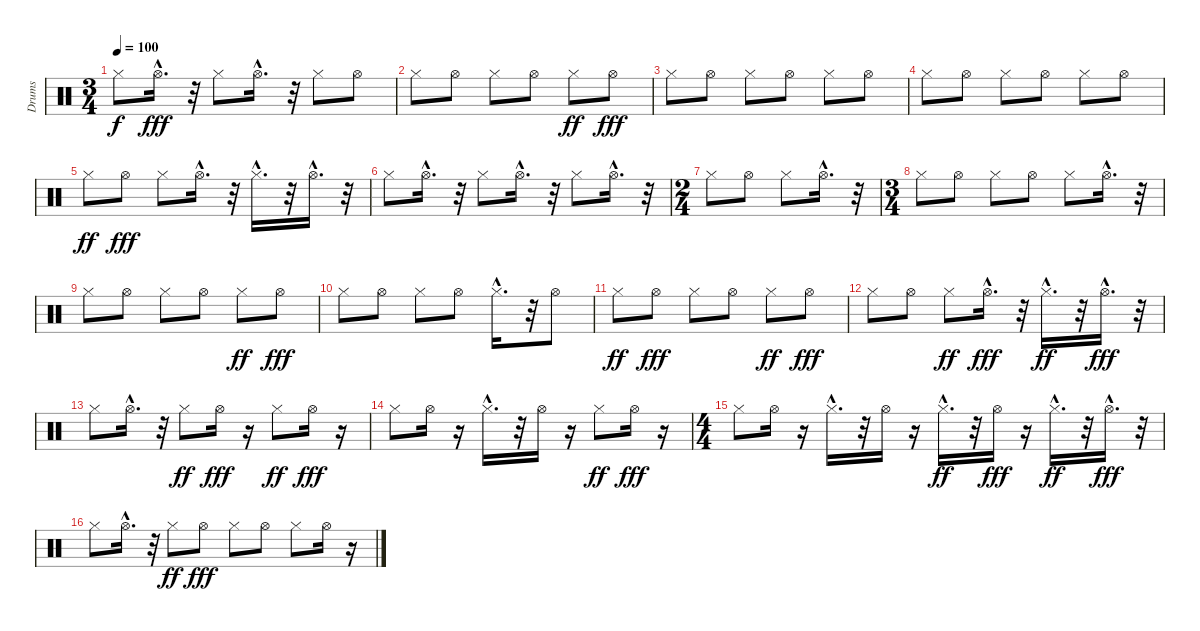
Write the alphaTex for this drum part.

\track ("Drums" "Drums") {instrument percussion}
\staff {score}
\articulation defaults
\ts (3 4)
\tempo 100
\clef neutral
\ks c "Hi-Hat (closed)".8{dy f} "Hi-Hat (open)"{hac}.16{d dy fff}
r.32 "Hi-Hat (closed)".8 "Hi-Hat (open)"{hac}.16{d} r.32 "Hi-Hat (closed)".8 "Hi-Hat (open)".8 |
"Hi-Hat (closed)".8 "Hi-Hat (open)".8 "Hi-Hat (closed)".8 "Hi-Hat (open)".8 "Hi-Hat (closed)".8{dy ff} "Hi-Hat (open)".8{dy fff} |
"Hi-Hat (closed)".8 "Hi-Hat (open)".8 "Hi-Hat (closed)".8 "Hi-Hat (open)".8 "Hi-Hat (closed)".8 "Hi-Hat (open)".8 |
"Hi-Hat (closed)".8 "Hi-Hat (open)".8 "Hi-Hat (closed)".8 "Hi-Hat (open)".8 "Hi-Hat (closed)".8 "Hi-Hat (open)".8 |
"Hi-Hat (closed)".8{dy ff} "Hi-Hat (open)".8{dy fff} "Hi-Hat (closed)".8 "Hi-Hat (open)"{hac}.16{d} r.32 "Hi-Hat (closed)"{hac}.16{d} r.32 "Hi-Hat (open)"{hac}.16{d} r.32 |
"Hi-Hat (closed)".8 "Hi-Hat (open)"{hac}.16{d} r.32 "Hi-Hat (closed)".8 "Hi-Hat (open)"{hac}.16{d} r.32 "Hi-Hat (closed)".8 "Hi-Hat (open)"{hac}.16{d} r.32 |
\ts (2 4)
"Hi-Hat (closed)".8 "Hi-Hat (open)".8 "Hi-Hat (closed)".8 "Hi-Hat (open)"{hac}.16{d} r.32 |
\ts (3 4)
"Hi-Hat (closed)".8 "Hi-Hat (open)".8 "Hi-Hat (closed)".8 "Hi-Hat (open)".8 "Hi-Hat (closed)".8 "Hi-Hat (open)"{hac}.16{d} r.32 |
"Hi-Hat (closed)".8 "Hi-Hat (open)".8 "Hi-Hat (closed)".8 "Hi-Hat (open)".8 "Hi-Hat (closed)".8{dy ff} "Hi-Hat (open)".8{dy fff} |
"Hi-Hat (closed)".8 "Hi-Hat (open)".8 "Hi-Hat (closed)".8 "Hi-Hat (open)".8 "Hi-Hat (closed)"{hac}.16{d} r.32 "Hi-Hat (open)".8 |
"Hi-Hat (closed)".8{dy ff} "Hi-Hat (open)".8{dy fff} "Hi-Hat (closed)".8 "Hi-Hat (open)".8 "Hi-Hat (closed)".8{dy ff} "Hi-Hat (open)".8{dy fff} |
"Hi-Hat (closed)".8 "Hi-Hat (open)".8 "Hi-Hat (closed)".8{dy ff} "Hi-Hat (open)"{hac}.16{d dy fff} r.32 "Hi-Hat (closed)"{hac}.16{d dy ff} r.32 "Hi-Hat (open)"{hac}.16{d dy fff} r.32 |
"Hi-Hat (closed)".8 "Hi-Hat (open)"{hac}.16{d} r.32 "Hi-Hat (closed)".8{dy ff} "Hi-Hat (open)".16{dy fff} r.16 "Hi-Hat (closed)".8{dy ff} "Hi-Hat (open)".16{dy fff} r.16 |
"Hi-Hat (closed)".8 "Hi-Hat (open)".16 r.16 "Hi-Hat (closed)"{hac}.16{d} r.32 "Hi-Hat (open)".16 r.16 "Hi-Hat (closed)".8{dy ff} "Hi-Hat (open)".16{dy fff} r.16 |
\ts (4 4)
"Hi-Hat (closed)".8 "Hi-Hat (open)".16 r.16 "Hi-Hat (closed)"{hac}.16{d} r.32 "Hi-Hat (open)".16 r.16 "Hi-Hat (closed)"{hac}.16{d dy ff} r.32 "Hi-Hat (open)".16{dy fff} r.16 "Hi-Hat (closed)"{hac}.16{d dy ff} r.32 "Hi-Hat (open)"{hac}.16{d dy fff} r.32 |
"Hi-Hat (closed)".8 "Hi-Hat (open)"{hac}.16{d} r.32 "Hi-Hat (closed)".8{dy ff} "Hi-Hat (open)".8{dy fff} "Hi-Hat (closed)".8 "Hi-Hat (open)".8 "Hi-Hat (closed)".8 "Hi-Hat (open)".16 r.16
